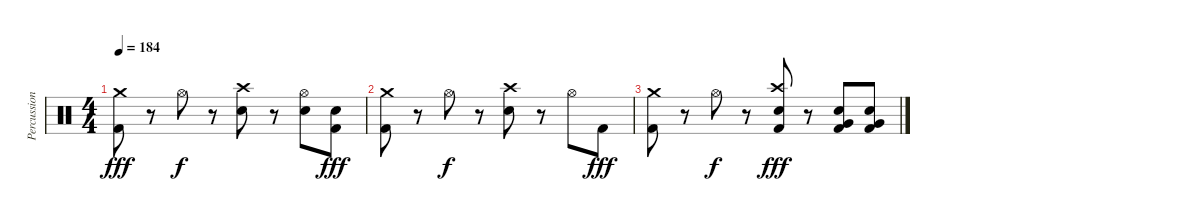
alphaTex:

\track ("Percussion" "Percussion") {instrument percussion}
\staff {score}
\articulation defaults
\ts (4 4)
\tempo 184
\clef neutral
\ks c
("Crash medium (hit)" "Kick (hit) 2").8{dy fff} r.8 "Hi-Hat (open)".8{dy f} r.8 ("Crash high (hit)" "Snare (hit) 2").8 r.8 ("Hi-Hat (open)" "Snare (hit) 2").8 ("Snare (hit) 2" "Kick (hit) 2").8{dy fff} |
("Crash medium (hit)" "Kick (hit) 2").8 r.8 "Hi-Hat (open)".8{dy f} r.8 ("Crash high (hit)" "Snare (hit) 2").8 r.8 "Hi-Hat (open)".8 "Kick (hit) 2".8{dy fff} |
("Crash medium (hit)" "Kick (hit) 2").8 r.8 "Hi-Hat (open)".8{dy f} r.8 ("Crash high (hit)" "Snare (hit) 2" "Kick (hit) 2").8{dy fff} r.8 ("Snare (hit) 2" "Very Low Tom (hit)" "Kick (hit) 2").8 ("Snare (hit) 2" "Very Low Tom (hit)" "Kick (hit) 2").8
